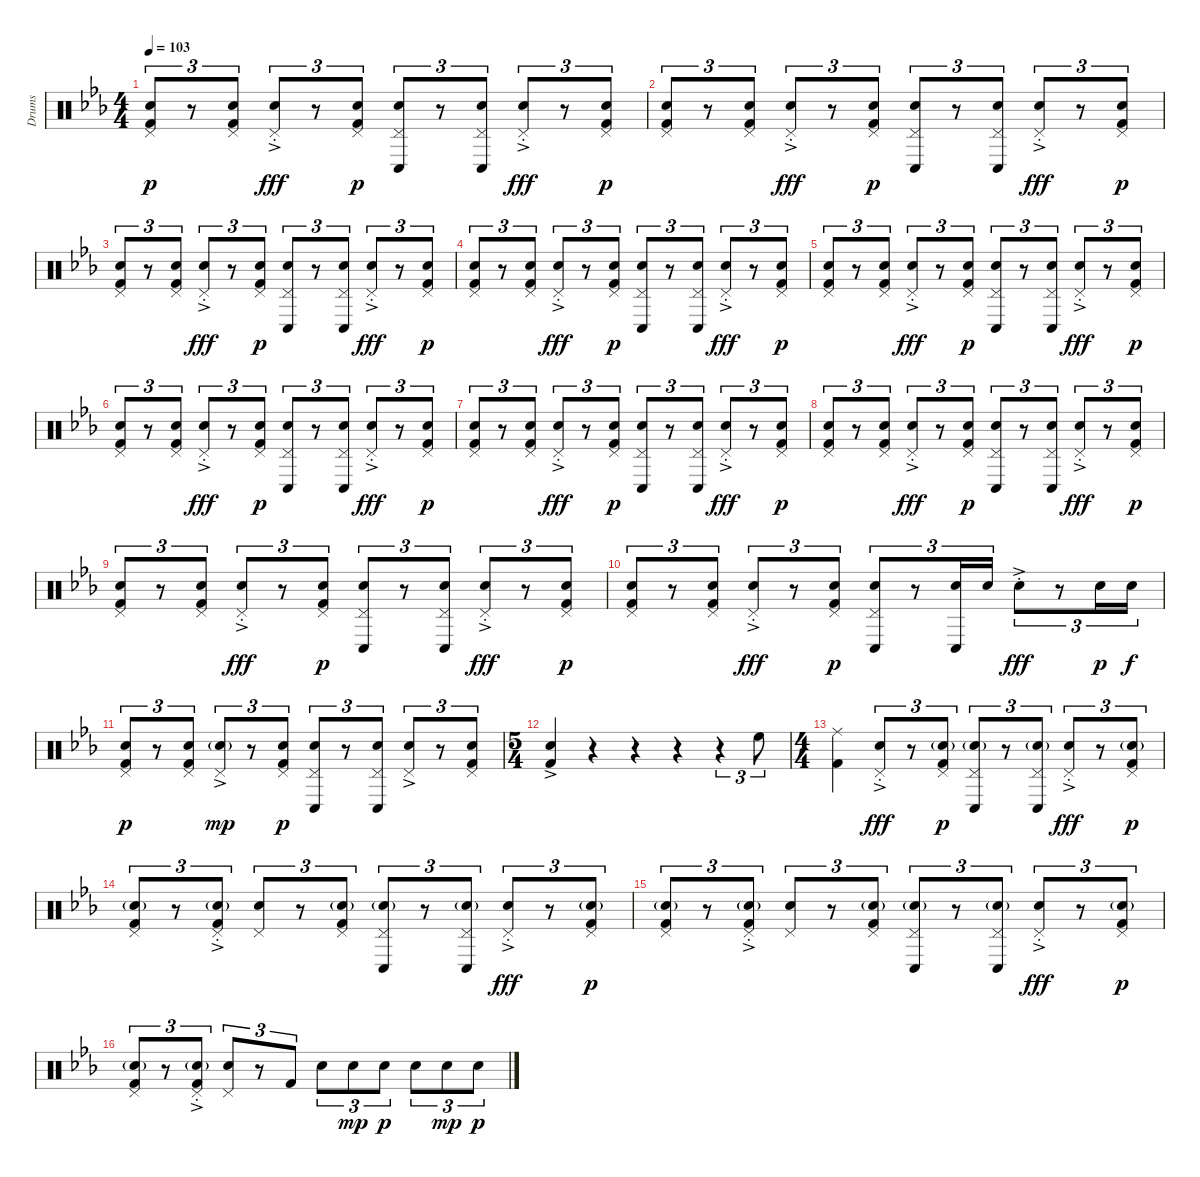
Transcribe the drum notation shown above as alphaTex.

\track ("Drums" "Drums") {instrument percussion}
\staff {score}
\articulation defaults
\ts (4 4)
\tempo 103
\clef neutral
\ks eb
("Pedal Hi-Hat (hit)" "Snare (hit) 2" "Kick (hit) 2").8{tu (3 2) dy p} r.8{tu (3 2)} ("Pedal Hi-Hat (hit)" "Snare (hit) 2" "Kick (hit) 2").8{tu (3 2)} ("Pedal Hi-Hat (hit)"{ac st} "Snare (hit) 2"{ac}).8{tu (3 2) dy fff} r.8{tu (3 2)} ("Pedal Hi-Hat (hit)" "Snare (hit) 2" "Kick (hit) 2").8{tu (3 2) dy p} ("Pedal Hi-Hat (hit)" "Snare (hit) 2" "Conga low (hit)").8{tu (3 2)} r.8{tu (3 2)} ("Pedal Hi-Hat (hit)" "Snare (hit) 2" "Conga low (hit)").8{tu (3 2)} ("Pedal Hi-Hat (hit)"{ac st} "Snare (hit) 2"{ac}).8{tu (3 2) dy fff} r.8{tu (3 2)} ("Pedal Hi-Hat (hit)" "Snare (hit) 2" "Kick (hit) 2").8{tu (3 2) dy p} |
("Pedal Hi-Hat (hit)" "Snare (hit) 2" "Kick (hit) 2").8{tu (3 2)} r.8{tu (3 2)} ("Pedal Hi-Hat (hit)" "Snare (hit) 2" "Kick (hit) 2").8{tu (3 2)} ("Pedal Hi-Hat (hit)"{ac st} "Snare (hit) 2"{ac}).8{tu (3 2) dy fff} r.8{tu (3 2)} ("Pedal Hi-Hat (hit)" "Snare (hit) 2" "Kick (hit) 2").8{tu (3 2) dy p} ("Pedal Hi-Hat (hit)" "Snare (hit) 2" "Conga low (hit)").8{tu (3 2)} r.8{tu (3 2)} ("Pedal Hi-Hat (hit)" "Snare (hit) 2" "Conga low (hit)").8{tu (3 2)} ("Pedal Hi-Hat (hit)"{ac st} "Snare (hit) 2"{ac}).8{tu (3 2) dy fff} r.8{tu (3 2)} ("Pedal Hi-Hat (hit)" "Snare (hit) 2" "Kick (hit) 2").8{tu (3 2) dy p} |
("Pedal Hi-Hat (hit)" "Snare (hit) 2" "Kick (hit) 2").8{tu (3 2)} r.8{tu (3 2)} ("Pedal Hi-Hat (hit)" "Snare (hit) 2" "Kick (hit) 2").8{tu (3 2)} ("Pedal Hi-Hat (hit)"{ac st} "Snare (hit) 2"{ac}).8{tu (3 2) dy fff} r.8{tu (3 2)} ("Pedal Hi-Hat (hit)" "Snare (hit) 2" "Kick (hit) 2").8{tu (3 2) dy p} ("Pedal Hi-Hat (hit)" "Snare (hit) 2" "Conga low (hit)").8{tu (3 2)} r.8{tu (3 2)} ("Pedal Hi-Hat (hit)" "Snare (hit) 2" "Conga low (hit)").8{tu (3 2)} ("Pedal Hi-Hat (hit)"{ac st} "Snare (hit) 2"{ac}).8{tu (3 2) dy fff} r.8{tu (3 2)} ("Pedal Hi-Hat (hit)" "Snare (hit) 2" "Kick (hit) 2").8{tu (3 2) dy p} |
("Pedal Hi-Hat (hit)" "Snare (hit) 2" "Kick (hit) 2").8{tu (3 2)} r.8{tu (3 2)} ("Pedal Hi-Hat (hit)" "Snare (hit) 2" "Kick (hit) 2").8{tu (3 2)} ("Pedal Hi-Hat (hit)"{ac st} "Snare (hit) 2"{ac}).8{tu (3 2) dy fff} r.8{tu (3 2)} ("Pedal Hi-Hat (hit)" "Snare (hit) 2" "Kick (hit) 2").8{tu (3 2) dy p} ("Pedal Hi-Hat (hit)" "Snare (hit) 2" "Conga low (hit)").8{tu (3 2)} r.8{tu (3 2)} ("Pedal Hi-Hat (hit)" "Snare (hit) 2" "Conga low (hit)").8{tu (3 2)} ("Pedal Hi-Hat (hit)"{ac st} "Snare (hit) 2"{ac}).8{tu (3 2) dy fff} r.8{tu (3 2)} ("Pedal Hi-Hat (hit)" "Snare (hit) 2" "Kick (hit) 2").8{tu (3 2) dy p} |
("Pedal Hi-Hat (hit)" "Snare (hit) 2" "Kick (hit) 2").8{tu (3 2)} r.8{tu (3 2)} ("Pedal Hi-Hat (hit)" "Snare (hit) 2" "Kick (hit) 2").8{tu (3 2)} ("Pedal Hi-Hat (hit)"{ac st} "Snare (hit) 2"{ac}).8{tu (3 2) dy fff} r.8{tu (3 2)} ("Pedal Hi-Hat (hit)" "Snare (hit) 2" "Kick (hit) 2").8{tu (3 2) dy p} ("Pedal Hi-Hat (hit)" "Snare (hit) 2" "Conga low (hit)").8{tu (3 2)} r.8{tu (3 2)} ("Pedal Hi-Hat (hit)" "Snare (hit) 2" "Conga low (hit)").8{tu (3 2)} ("Pedal Hi-Hat (hit)"{ac st} "Snare (hit) 2"{ac}).8{tu (3 2) dy fff} r.8{tu (3 2)} ("Pedal Hi-Hat (hit)" "Snare (hit) 2" "Kick (hit) 2").8{tu (3 2) dy p} |
("Pedal Hi-Hat (hit)" "Snare (hit) 2" "Kick (hit) 2").8{tu (3 2)} r.8{tu (3 2)} ("Pedal Hi-Hat (hit)" "Snare (hit) 2" "Kick (hit) 2").8{tu (3 2)} ("Pedal Hi-Hat (hit)"{ac st} "Snare (hit) 2"{ac}).8{tu (3 2) dy fff} r.8{tu (3 2)} ("Pedal Hi-Hat (hit)" "Snare (hit) 2" "Kick (hit) 2").8{tu (3 2) dy p} ("Pedal Hi-Hat (hit)" "Snare (hit) 2" "Conga low (hit)").8{tu (3 2)} r.8{tu (3 2)} ("Pedal Hi-Hat (hit)" "Snare (hit) 2" "Conga low (hit)").8{tu (3 2)} ("Pedal Hi-Hat (hit)"{ac st} "Snare (hit) 2"{ac}).8{tu (3 2) dy fff} r.8{tu (3 2)} ("Pedal Hi-Hat (hit)" "Snare (hit) 2" "Kick (hit) 2").8{tu (3 2) dy p} |
("Pedal Hi-Hat (hit)" "Snare (hit) 2" "Kick (hit) 2").8{tu (3 2)} r.8{tu (3 2)} ("Pedal Hi-Hat (hit)" "Snare (hit) 2" "Kick (hit) 2").8{tu (3 2)} ("Pedal Hi-Hat (hit)"{ac st} "Snare (hit) 2"{ac}).8{tu (3 2) dy fff} r.8{tu (3 2)} ("Pedal Hi-Hat (hit)" "Snare (hit) 2" "Kick (hit) 2").8{tu (3 2) dy p} ("Pedal Hi-Hat (hit)" "Snare (hit) 2" "Conga low (hit)").8{tu (3 2)} r.8{tu (3 2)} ("Pedal Hi-Hat (hit)" "Snare (hit) 2" "Conga low (hit)").8{tu (3 2)} ("Pedal Hi-Hat (hit)"{ac st} "Snare (hit) 2"{ac}).8{tu (3 2) dy fff} r.8{tu (3 2)} ("Pedal Hi-Hat (hit)" "Snare (hit) 2" "Kick (hit) 2").8{tu (3 2) dy p} |
("Pedal Hi-Hat (hit)" "Snare (hit) 2" "Kick (hit) 2").8{tu (3 2)} r.8{tu (3 2)} ("Pedal Hi-Hat (hit)" "Snare (hit) 2" "Kick (hit) 2").8{tu (3 2)} ("Pedal Hi-Hat (hit)"{ac st} "Snare (hit) 2"{ac}).8{tu (3 2) dy fff} r.8{tu (3 2)} ("Pedal Hi-Hat (hit)" "Snare (hit) 2" "Kick (hit) 2").8{tu (3 2) dy p} ("Pedal Hi-Hat (hit)" "Snare (hit) 2" "Conga low (hit)").8{tu (3 2)} r.8{tu (3 2)} ("Pedal Hi-Hat (hit)" "Snare (hit) 2" "Conga low (hit)").8{tu (3 2)} ("Pedal Hi-Hat (hit)"{ac st} "Snare (hit) 2"{ac}).8{tu (3 2) dy fff} r.8{tu (3 2)} ("Pedal Hi-Hat (hit)" "Snare (hit) 2" "Kick (hit) 2").8{tu (3 2) dy p} |
("Pedal Hi-Hat (hit)" "Snare (hit) 2" "Kick (hit) 2").8{tu (3 2)} r.8{tu (3 2)} ("Pedal Hi-Hat (hit)" "Snare (hit) 2" "Kick (hit) 2").8{tu (3 2)} ("Pedal Hi-Hat (hit)"{ac st} "Snare (hit) 2"{ac}).8{tu (3 2) dy fff} r.8{tu (3 2)} ("Pedal Hi-Hat (hit)" "Snare (hit) 2" "Kick (hit) 2").8{tu (3 2) dy p} ("Pedal Hi-Hat (hit)" "Snare (hit) 2" "Conga low (hit)").8{tu (3 2)} r.8{tu (3 2)} ("Pedal Hi-Hat (hit)" "Snare (hit) 2" "Conga low (hit)").8{tu (3 2)} ("Pedal Hi-Hat (hit)"{ac st} "Snare (hit) 2"{ac}).8{tu (3 2) dy fff} r.8{tu (3 2)} ("Pedal Hi-Hat (hit)" "Snare (hit) 2" "Kick (hit) 2").8{tu (3 2) dy p} |
("Pedal Hi-Hat (hit)" "Snare (hit) 2" "Kick (hit) 2").8{tu (3 2)} r.8{tu (3 2)} ("Pedal Hi-Hat (hit)" "Snare (hit) 2" "Kick (hit) 2").8{tu (3 2)} ("Pedal Hi-Hat (hit)"{ac st} "Snare (hit) 2"{ac st}).8{tu (3 2) dy fff} r.8{tu (3 2)} ("Pedal Hi-Hat (hit)" "Snare (hit) 2" "Kick (hit) 2").8{tu (3 2) dy p} ("Pedal Hi-Hat (hit)" "Snare (hit) 2" "Conga low (hit)").8{tu (3 2)} r.8{tu (3 2)} ("Snare (hit) 2" "Conga low (hit)").16{tu (3 2)} "Snare (hit) 2".16{tu (3 2)} "Snare (hit) 2"{ac st}.8{tu (3 2) dy fff} r.8{tu (3 2)} "Snare (hit) 2".16{tu (3 2) dy p} "Snare (hit) 2".16{tu (3 2) dy f} |
("Pedal Hi-Hat (hit)" "Snare (hit) 2" "Kick (hit) 2").8{tu (3 2) dy p} r.8{tu (3 2)} ("Pedal Hi-Hat (hit)" "Snare (hit) 2" "Kick (hit) 2").8{tu (3 2)} ("Pedal Hi-Hat (hit)"{ac} "Snare (hit) 2"{g}).8{tu (3 2) dy mp} r.8{tu (3 2)} ("Pedal Hi-Hat (hit)" "Snare (hit) 2" "Kick (hit) 2").8{tu (3 2) dy p} ("Pedal Hi-Hat (hit)" "Snare (hit) 2" "Conga low (hit)").8{tu (3 2)} r.8{tu (3 2)} ("Pedal Hi-Hat (hit)" "Snare (hit) 2" "Conga low (hit)").8{tu (3 2)} ("Pedal Hi-Hat (hit)"{ac} "Snare (hit) 2").8{tu (3 2)} r.8{tu (3 2)} ("Pedal Hi-Hat (hit)" "Snare (hit) 2" "Kick (hit) 2").8{tu (3 2)} |
\ts (5 4)
("Snare (hit) 2"{ac} "Kick (hit) 2").4 r.4 r.4 r.4 r.4{tu (3 2)} "High Floor Tom (hit)".8{tu (3 2)} |
\ts (4 4)
("Ride (middle)" "Kick (hit) 2").4 ("Pedal Hi-Hat (hit)"{ac st} "Snare (hit) 2"{ac st}).8{tu (3 2) dy fff} r.8{tu (3 2)} ("Pedal Hi-Hat (hit)" "Snare (hit) 2"{g} "Kick (hit) 2").8{tu (3 2) dy p} ("Pedal Hi-Hat (hit)" "Snare (hit) 2"{g} "Conga low (hit)").8{tu (3 2)} r.8{tu (3 2)} ("Pedal Hi-Hat (hit)" "Snare (hit) 2"{g} "Conga low (hit)").8{tu (3 2)} ("Pedal Hi-Hat (hit)"{ac st} "Snare (hit) 2"{ac st}).8{tu (3 2) dy fff} r.8{tu (3 2)} ("Pedal Hi-Hat (hit)" "Snare (hit) 2"{g} "Kick (hit) 2").8{tu (3 2) dy p} |
("Pedal Hi-Hat (hit)" "Snare (hit) 2"{g} "Kick (hit) 2").8{tu (3 2)} r.8{tu (3 2)} ("Pedal Hi-Hat (hit)"{ac st} "Snare (hit) 2"{g} "Kick (hit) 2").8{tu (3 2)} ("Pedal Hi-Hat (hit)" "Snare (hit) 2").8{tu (3 2)} r.8{tu (3 2)} ("Pedal Hi-Hat (hit)" "Snare (hit) 2"{g} "Kick (hit) 2").8{tu (3 2)} ("Pedal Hi-Hat (hit)" "Snare (hit) 2"{g} "Conga low (hit)").8{tu (3 2)} r.8{tu (3 2)} ("Pedal Hi-Hat (hit)" "Snare (hit) 2"{g} "Conga low (hit)").8{tu (3 2)} ("Pedal Hi-Hat (hit)"{ac st} "Snare (hit) 2"{ac st}).8{tu (3 2) dy fff} r.8{tu (3 2)} ("Pedal Hi-Hat (hit)" "Snare (hit) 2"{g} "Kick (hit) 2").8{tu (3 2) dy p} |
("Pedal Hi-Hat (hit)" "Snare (hit) 2"{g} "Kick (hit) 2").8{tu (3 2)} r.8{tu (3 2)} ("Pedal Hi-Hat (hit)"{ac st} "Snare (hit) 2"{g} "Kick (hit) 2").8{tu (3 2)} ("Pedal Hi-Hat (hit)" "Snare (hit) 2").8{tu (3 2)} r.8{tu (3 2)} ("Pedal Hi-Hat (hit)" "Snare (hit) 2"{g} "Kick (hit) 2").8{tu (3 2)} ("Pedal Hi-Hat (hit)" "Snare (hit) 2"{g} "Conga low (hit)").8{tu (3 2)} r.8{tu (3 2)} ("Pedal Hi-Hat (hit)" "Snare (hit) 2"{g} "Conga low (hit)").8{tu (3 2)} ("Pedal Hi-Hat (hit)"{ac st} "Snare (hit) 2"{ac st}).8{tu (3 2) dy fff} r.8{tu (3 2)} ("Pedal Hi-Hat (hit)" "Snare (hit) 2"{g} "Kick (hit) 2").8{tu (3 2) dy p} |
("Pedal Hi-Hat (hit)" "Snare (hit) 2"{g} "Kick (hit) 2").8{tu (3 2)} r.8{tu (3 2)} ("Pedal Hi-Hat (hit)"{ac st} "Snare (hit) 2"{g} "Kick (hit) 2").8{tu (3 2)} ("Pedal Hi-Hat (hit)" "Snare (hit) 2").8{tu (3 2)} r.8{tu (3 2)} "Kick (hit) 2".8{tu (3 2)} "Snare (hit) 2".8{tu (3 2)} "Snare (hit) 2".8{tu (3 2) dy mp} "Snare (hit) 2".8{tu (3 2) dy p} "Snare (hit) 2".8{tu (3 2)} "Snare (hit) 2".8{tu (3 2) dy mp} "Snare (hit) 2".8{tu (3 2) dy p}
